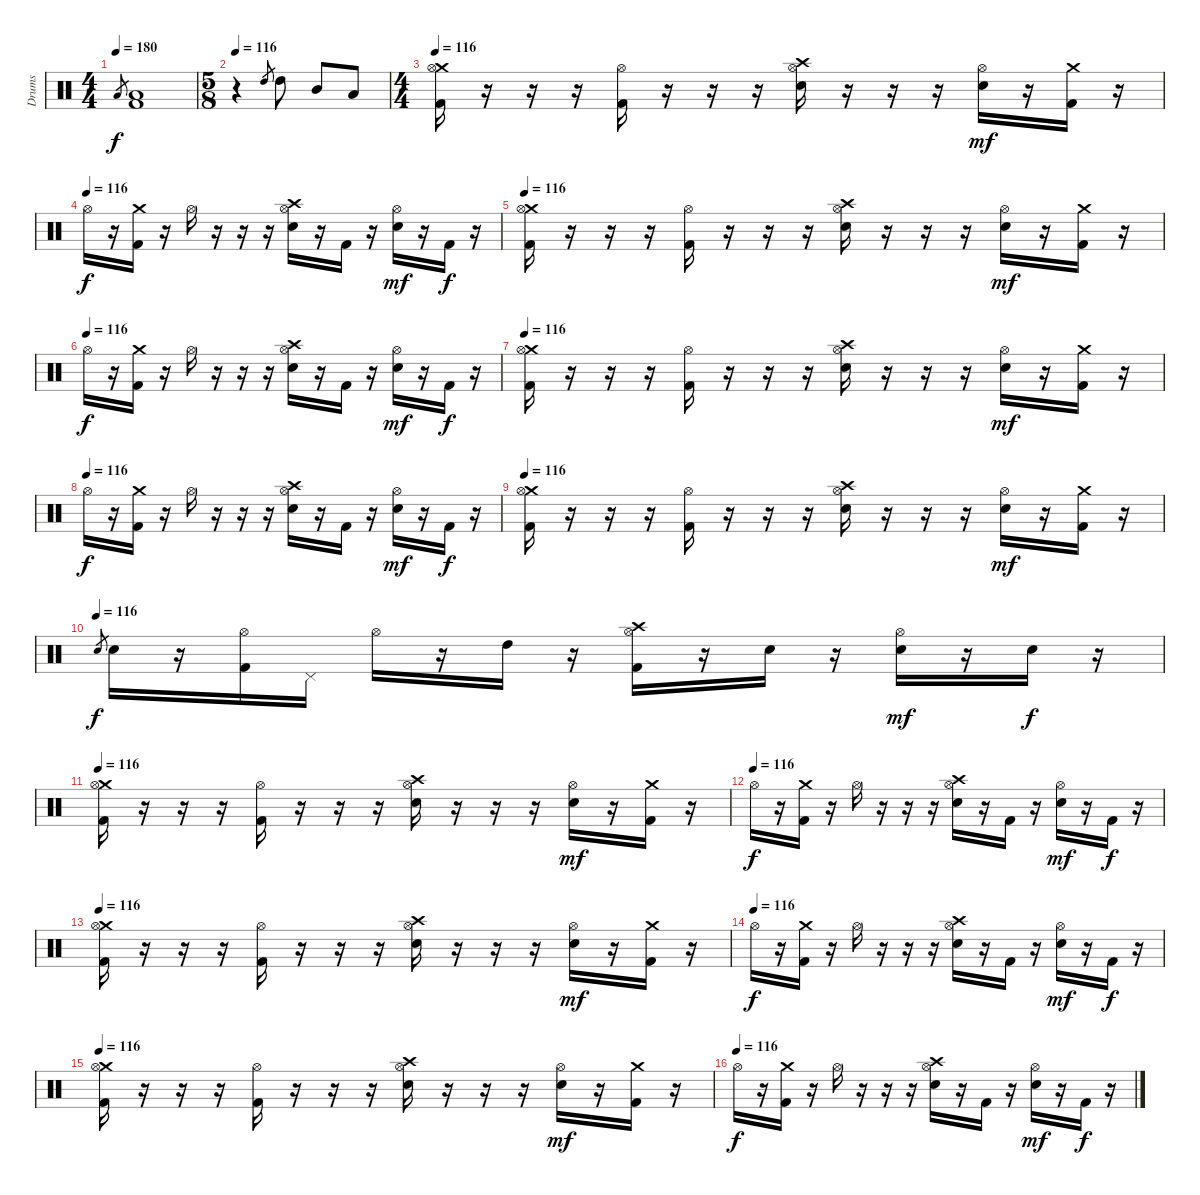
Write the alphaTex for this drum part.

\track ("Drums" "Drums") {instrument percussion}
\staff {score}
\articulation defaults
\ts (4 4)
\tempo 180
\clef neutral
\ks c "Low Floor Tom (hit)".8{gr dy f}
("Low Floor Tom (hit)" "Kick (hit) 2").1 |
\ts (5 8)
\tempo 116
r.4 "High Tom (hit)".8{gr} "High Tom (hit)".8 "Mid Tom (hit)".8 "Low Tom (hit)".8 |
\ts (4 4)
\tempo 116
("Crash medium (hit)" "Hi-Hat (open)" "Kick (hit) 2").16 r.16 r.16 r.16 ("Hi-Hat (open)" "Kick (hit) 2").16 r.16 r.16 r.16 ("Crash high (hit)" "Hi-Hat (open)" "Electric Snare (hit)").16 r.16 r.16 r.16 ("Hi-Hat (open)" "Electric Snare (hit)").16{dy mf} r.16 ("Crash medium (hit)" "Kick (hit) 2").16 r.16 |
\tempo (116)
"Hi-Hat (open)".16{dy f} r.16 ("Crash medium (hit)" "Kick (hit) 2").16 r.16 "Hi-Hat (open)".16 r.16 r.16 r.16 ("Crash high (hit)" "Hi-Hat (open)" "Electric Snare (hit)").16 r.16 "Kick (hit) 2".16 r.16 ("Hi-Hat (open)" "Electric Snare (hit)").16{dy mf} r.16 "Kick (hit) 2".16{dy f} r.16 |
\tempo 116
("Crash medium (hit)" "Hi-Hat (open)" "Kick (hit) 2").16 r.16 r.16 r.16 ("Hi-Hat (open)" "Kick (hit) 2").16 r.16 r.16 r.16 ("Crash high (hit)" "Hi-Hat (open)" "Electric Snare (hit)").16 r.16 r.16 r.16 ("Hi-Hat (open)" "Electric Snare (hit)").16{dy mf} r.16 ("Crash medium (hit)" "Kick (hit) 2").16 r.16 |
\tempo (116)
"Hi-Hat (open)".16{dy f} r.16 ("Crash medium (hit)" "Kick (hit) 2").16 r.16 "Hi-Hat (open)".16 r.16 r.16 r.16 ("Crash high (hit)" "Hi-Hat (open)" "Electric Snare (hit)").16 r.16 "Kick (hit) 2".16 r.16 ("Hi-Hat (open)" "Electric Snare (hit)").16{dy mf} r.16 "Kick (hit) 2".16{dy f} r.16 |
\tempo 116
("Crash medium (hit)" "Hi-Hat (open)" "Kick (hit) 2").16 r.16 r.16 r.16 ("Hi-Hat (open)" "Kick (hit) 2").16 r.16 r.16 r.16 ("Crash high (hit)" "Hi-Hat (open)" "Electric Snare (hit)").16 r.16 r.16 r.16 ("Hi-Hat (open)" "Electric Snare (hit)").16{dy mf} r.16 ("Crash medium (hit)" "Kick (hit) 2").16 r.16 |
\tempo (116)
"Hi-Hat (open)".16{dy f} r.16 ("Crash medium (hit)" "Kick (hit) 2").16 r.16 "Hi-Hat (open)".16 r.16 r.16 r.16 ("Crash high (hit)" "Hi-Hat (open)" "Electric Snare (hit)").16 r.16 "Kick (hit) 2".16 r.16 ("Hi-Hat (open)" "Electric Snare (hit)").16{dy mf} r.16 "Kick (hit) 2".16{dy f} r.16 |
\tempo 116
("Crash medium (hit)" "Hi-Hat (open)" "Kick (hit) 2").16 r.16 r.16 r.16 ("Hi-Hat (open)" "Kick (hit) 2").16 r.16 r.16 r.16 ("Crash high (hit)" "Hi-Hat (open)" "Electric Snare (hit)").16 r.16 r.16 r.16 ("Hi-Hat (open)" "Electric Snare (hit)").16{dy mf} r.16 ("Crash medium (hit)" "Kick (hit) 2").16 r.16 |
\tempo (116)
"Electric Snare (hit)".8{gr dy f} "Electric Snare (hit)".16 r.16 ("Hi-Hat (open)" "Kick (hit) 2").16 "Pedal Hi-Hat (hit)".16 "Hi-Hat (open)".16 r.16 "High Tom (hit)".16 r.16 ("Crash high (hit)" "Hi-Hat (open)" "Kick (hit) 2").16 r.16 "Electric Snare (hit)".16 r.16 ("Hi-Hat (open)" "Electric Snare (hit)").16{dy mf} r.16 "Electric Snare (hit)".16{dy f} r.16 |
\tempo 116
("Crash medium (hit)" "Hi-Hat (open)" "Kick (hit) 2").16 r.16 r.16 r.16 ("Hi-Hat (open)" "Kick (hit) 2").16 r.16 r.16 r.16 ("Crash high (hit)" "Hi-Hat (open)" "Electric Snare (hit)").16 r.16 r.16 r.16 ("Hi-Hat (open)" "Electric Snare (hit)").16{dy mf} r.16 ("Crash medium (hit)" "Kick (hit) 2").16 r.16 |
\tempo (116)
"Hi-Hat (open)".16{dy f} r.16 ("Crash medium (hit)" "Kick (hit) 2").16 r.16 "Hi-Hat (open)".16 r.16 r.16 r.16 ("Crash high (hit)" "Hi-Hat (open)" "Electric Snare (hit)").16 r.16 "Kick (hit) 2".16 r.16 ("Hi-Hat (open)" "Electric Snare (hit)").16{dy mf} r.16 "Kick (hit) 2".16{dy f} r.16 |
\tempo 116
("Crash medium (hit)" "Hi-Hat (open)" "Kick (hit) 2").16 r.16 r.16 r.16 ("Hi-Hat (open)" "Kick (hit) 2").16 r.16 r.16 r.16 ("Crash high (hit)" "Hi-Hat (open)" "Electric Snare (hit)").16 r.16 r.16 r.16 ("Hi-Hat (open)" "Electric Snare (hit)").16{dy mf} r.16 ("Crash medium (hit)" "Kick (hit) 2").16 r.16 |
\tempo (116)
"Hi-Hat (open)".16{dy f} r.16 ("Crash medium (hit)" "Kick (hit) 2").16 r.16 "Hi-Hat (open)".16 r.16 r.16 r.16 ("Crash high (hit)" "Hi-Hat (open)" "Electric Snare (hit)").16 r.16 "Kick (hit) 2".16 r.16 ("Hi-Hat (open)" "Electric Snare (hit)").16{dy mf} r.16 "Kick (hit) 2".16{dy f} r.16 |
\tempo 116
("Crash medium (hit)" "Hi-Hat (open)" "Kick (hit) 2").16 r.16 r.16 r.16 ("Hi-Hat (open)" "Kick (hit) 2").16 r.16 r.16 r.16 ("Crash high (hit)" "Hi-Hat (open)" "Electric Snare (hit)").16 r.16 r.16 r.16 ("Hi-Hat (open)" "Electric Snare (hit)").16{dy mf} r.16 ("Crash medium (hit)" "Kick (hit) 2").16 r.16 |
\tempo (116)
"Hi-Hat (open)".16{dy f} r.16 ("Crash medium (hit)" "Kick (hit) 2").16 r.16 "Hi-Hat (open)".16 r.16 r.16 r.16 ("Crash high (hit)" "Hi-Hat (open)" "Electric Snare (hit)").16 r.16 "Kick (hit) 2".16 r.16 ("Hi-Hat (open)" "Electric Snare (hit)").16{dy mf} r.16 "Kick (hit) 2".16{dy f} r.16
